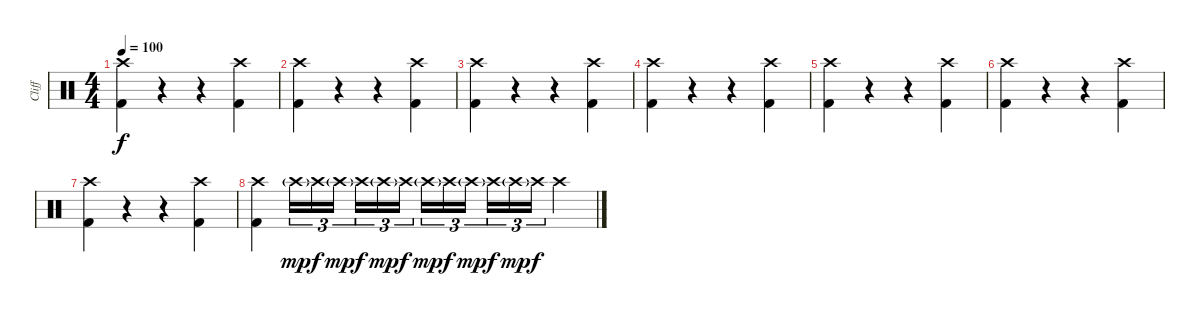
\track ("Cliff " "Cliff ") {instrument percussion}
\staff {score}
\articulation defaults
\ts (4 4)
\tempo 100
\clef neutral
\ks c
("Crash high (hit)" "Kick (hit) 2").4{dy f} r.4 r.4 ("Crash high (hit)" "Kick (hit) 2").4 |
("Crash high (hit)" "Kick (hit) 2").4 r.4 r.4 ("Crash high (hit)" "Kick (hit) 2").4 |
("Crash high (hit)" "Kick (hit) 2").4 r.4 r.4 ("Crash high (hit)" "Kick (hit) 2").4 |
("Crash high (hit)" "Kick (hit) 2").4 r.4 r.4 ("Crash high (hit)" "Kick (hit) 2").4 |
("Crash high (hit)" "Kick (hit) 2").4 r.4 r.4 ("Crash high (hit)" "Kick (hit) 2").4 |
("Crash high (hit)" "Kick (hit) 2").4 r.4 r.4 ("Crash high (hit)" "Kick (hit) 2").4 |
("Crash high (hit)" "Kick (hit) 2").4 r.4 r.4 ("Crash high (hit)" "Kick (hit) 2").4 |
("Crash high (hit)" "Kick (hit) 2").4 "Crash high (hit)"{g}.16{tu (3 2) dy mp} "Crash high (hit)".16{tu (3 2) dy f} "Crash high (hit)"{g}.16{tu (3 2) dy mp} "Crash high (hit)".16{tu (3 2) dy f} "Crash high (hit)"{g}.16{tu (3 2) dy mp} "Crash high (hit)".16{tu (3 2) dy f} "Crash high (hit)"{g}.16{tu (3 2) dy mp} "Crash high (hit)".16{tu (3 2) dy f} "Crash high (hit)"{g}.16{tu (3 2) dy mp} "Crash high (hit)".16{tu (3 2) dy f} "Crash high (hit)"{g}.16{tu (3 2) dy mp} "Crash high (hit)".16{tu (3 2) dy f} "Crash high (hit)".4
